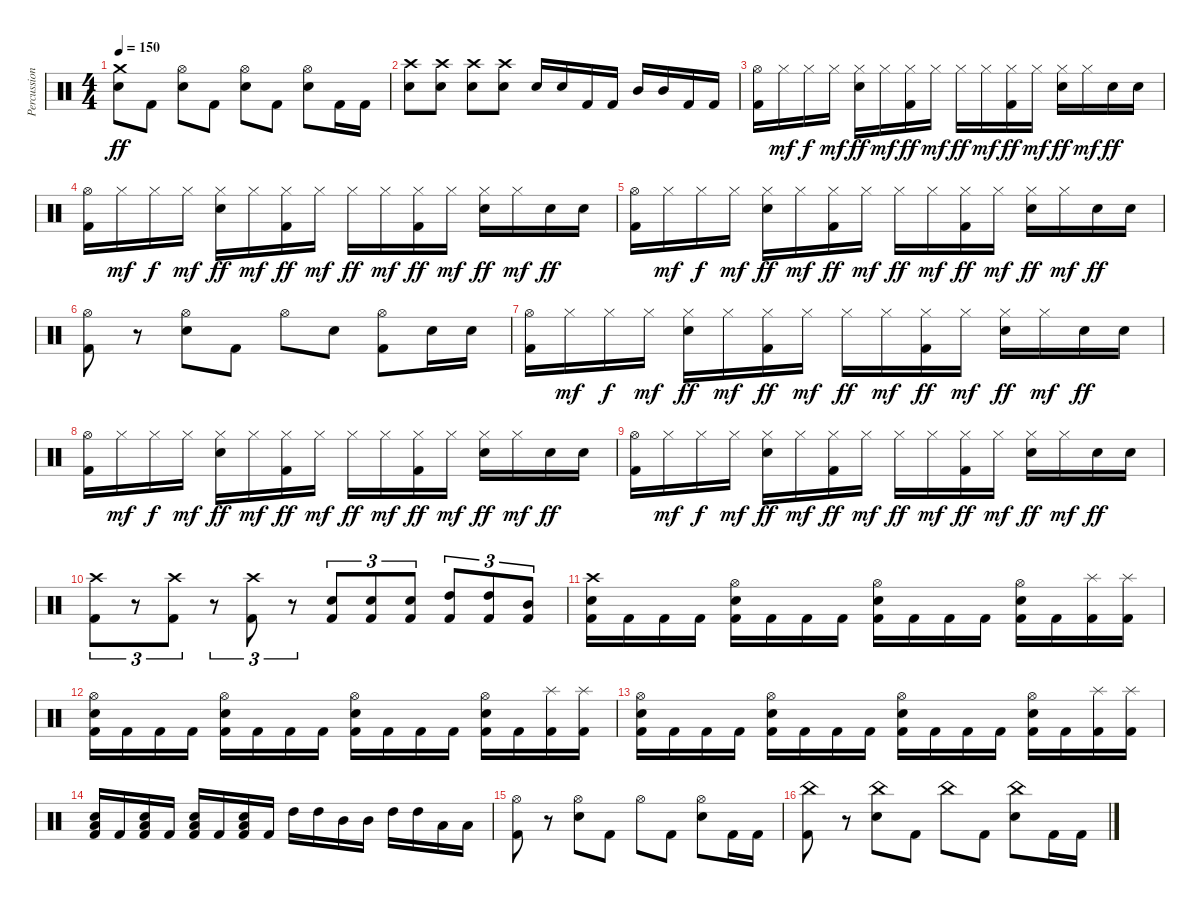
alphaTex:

\track ("Percussion" "Percussion") {instrument percussion}
\staff {score}
\articulation defaults
\ts (4 4)
\tempo 150
\clef neutral
\ks c
("Crash medium (hit)" "Snare (hit) 2").8{dy ff} "Kick (hit) 2".8 ("Hi-Hat (open)" "Snare (hit) 2").8 "Kick (hit) 2".8 ("Hi-Hat (open)" "Snare (hit) 2").8 "Kick (hit) 2".8 ("Hi-Hat (open)" "Snare (hit) 2").8 "Kick (hit) 2".16 "Kick (hit) 2".16 |
("Crash high (hit)" "Snare (hit) 2").8 ("Crash high (hit)" "Snare (hit) 2").8 ("Crash high (hit)" "Snare (hit) 2").8 ("Crash high (hit)" "Snare (hit) 2").8 "Snare (hit) 2".16 "Snare (hit) 2".16 "Kick (hit) 2".16 "Kick (hit) 2".16 "Mid Tom (hit)".16 "Mid Tom (hit)".16 "Kick (hit) 2".16 "Kick (hit) 2".16 |
("Hi-Hat (open)" "Kick (hit) 2").16 "Hi-Hat (closed)".16{dy mf} "Hi-Hat (closed)".16{dy f} "Hi-Hat (closed)".16{dy mf} ("Hi-Hat (closed)" "Snare (hit) 2").16{dy ff} "Hi-Hat (closed)".16{dy mf} ("Hi-Hat (closed)" "Kick (hit) 2").16{dy ff} "Hi-Hat (closed)".16{dy mf} "Hi-Hat (closed)".16{dy ff} "Hi-Hat (closed)".16{dy mf} ("Hi-Hat (closed)" "Kick (hit) 2").16{dy ff} "Hi-Hat (closed)".16{dy mf} ("Hi-Hat (closed)" "Snare (hit) 2").16{dy ff} "Hi-Hat (closed)".16{dy mf} "Snare (hit) 2".16{dy ff} "Snare (hit) 2".16 |
("Hi-Hat (open)" "Kick (hit) 2").16 "Hi-Hat (closed)".16{dy mf} "Hi-Hat (closed)".16{dy f} "Hi-Hat (closed)".16{dy mf} ("Hi-Hat (closed)" "Snare (hit) 2").16{dy ff} "Hi-Hat (closed)".16{dy mf} ("Hi-Hat (closed)" "Kick (hit) 2").16{dy ff} "Hi-Hat (closed)".16{dy mf} "Hi-Hat (closed)".16{dy ff} "Hi-Hat (closed)".16{dy mf} ("Hi-Hat (closed)" "Kick (hit) 2").16{dy ff} "Hi-Hat (closed)".16{dy mf} ("Hi-Hat (closed)" "Snare (hit) 2").16{dy ff} "Hi-Hat (closed)".16{dy mf} "Snare (hit) 2".16{dy ff} "Snare (hit) 2".16 |
("Hi-Hat (open)" "Kick (hit) 2").16 "Hi-Hat (closed)".16{dy mf} "Hi-Hat (closed)".16{dy f} "Hi-Hat (closed)".16{dy mf} ("Hi-Hat (closed)" "Snare (hit) 2").16{dy ff} "Hi-Hat (closed)".16{dy mf} ("Hi-Hat (closed)" "Kick (hit) 2").16{dy ff} "Hi-Hat (closed)".16{dy mf} "Hi-Hat (closed)".16{dy ff} "Hi-Hat (closed)".16{dy mf} ("Hi-Hat (closed)" "Kick (hit) 2").16{dy ff} "Hi-Hat (closed)".16{dy mf} ("Hi-Hat (closed)" "Snare (hit) 2").16{dy ff} "Hi-Hat (closed)".16{dy mf} "Snare (hit) 2".16{dy ff} "Snare (hit) 2".16 |
("Hi-Hat (open)" "Kick (hit) 2").8 r.8 ("Hi-Hat (open)" "Snare (hit) 2").8 "Kick (hit) 2".8 "Hi-Hat (open)".8 "Snare (hit) 2".8 ("Hi-Hat (open)" "Kick (hit) 2").8 "Snare (hit) 2".16 "Snare (hit) 2".16 |
("Hi-Hat (open)" "Kick (hit) 2").16 "Hi-Hat (closed)".16{dy mf} "Hi-Hat (closed)".16{dy f} "Hi-Hat (closed)".16{dy mf} ("Hi-Hat (closed)" "Snare (hit) 2").16{dy ff} "Hi-Hat (closed)".16{dy mf} ("Hi-Hat (closed)" "Kick (hit) 2").16{dy ff} "Hi-Hat (closed)".16{dy mf} "Hi-Hat (closed)".16{dy ff} "Hi-Hat (closed)".16{dy mf} ("Hi-Hat (closed)" "Kick (hit) 2").16{dy ff} "Hi-Hat (closed)".16{dy mf} ("Hi-Hat (closed)" "Snare (hit) 2").16{dy ff} "Hi-Hat (closed)".16{dy mf} "Snare (hit) 2".16{dy ff} "Snare (hit) 2".16 |
("Hi-Hat (open)" "Kick (hit) 2").16 "Hi-Hat (closed)".16{dy mf} "Hi-Hat (closed)".16{dy f} "Hi-Hat (closed)".16{dy mf} ("Hi-Hat (closed)" "Snare (hit) 2").16{dy ff} "Hi-Hat (closed)".16{dy mf} ("Hi-Hat (closed)" "Kick (hit) 2").16{dy ff} "Hi-Hat (closed)".16{dy mf} "Hi-Hat (closed)".16{dy ff} "Hi-Hat (closed)".16{dy mf} ("Hi-Hat (closed)" "Kick (hit) 2").16{dy ff} "Hi-Hat (closed)".16{dy mf} ("Hi-Hat (closed)" "Snare (hit) 2").16{dy ff} "Hi-Hat (closed)".16{dy mf} "Snare (hit) 2".16{dy ff} "Snare (hit) 2".16 |
("Hi-Hat (open)" "Kick (hit) 2").16 "Hi-Hat (closed)".16{dy mf} "Hi-Hat (closed)".16{dy f} "Hi-Hat (closed)".16{dy mf} ("Hi-Hat (closed)" "Snare (hit) 2").16{dy ff} "Hi-Hat (closed)".16{dy mf} ("Hi-Hat (closed)" "Kick (hit) 2").16{dy ff} "Hi-Hat (closed)".16{dy mf} "Hi-Hat (closed)".16{dy ff} "Hi-Hat (closed)".16{dy mf} ("Hi-Hat (closed)" "Kick (hit) 2").16{dy ff} "Hi-Hat (closed)".16{dy mf} ("Hi-Hat (closed)" "Snare (hit) 2").16{dy ff} "Hi-Hat (closed)".16{dy mf} "Snare (hit) 2".16{dy ff} "Snare (hit) 2".16 |
("Crash high (hit)" "Kick (hit) 2").8{tu (3 2)} r.8{tu (3 2)} ("Crash high (hit)" "Kick (hit) 2").8{tu (3 2)} r.8{tu (3 2)} ("Crash high (hit)" "Kick (hit) 2").8{tu (3 2)} r.8{tu (3 2)} ("Snare (hit) 2" "Kick (hit) 2").8{tu (3 2)} ("Snare (hit) 2" "Kick (hit) 2").8{tu (3 2)} ("Snare (hit) 2" "Kick (hit) 2").8{tu (3 2)} ("High Tom (hit)" "Kick (hit) 2").8{tu (3 2)} ("High Tom (hit)" "Kick (hit) 2").8{tu (3 2)} ("Mid Tom (hit)" "Kick (hit) 2").8{tu (3 2)} |
("Crash high (hit)" "Snare (hit) 2" "Kick (hit) 2").16 "Kick (hit) 2".16 "Kick (hit) 2".16 "Kick (hit) 2".16 ("Hi-Hat (open)" "Snare (hit) 2" "Kick (hit) 2").16 "Kick (hit) 2".16 "Kick (hit) 2".16 "Kick (hit) 2".16 ("Hi-Hat (open)" "Snare (hit) 2" "Kick (hit) 2").16 "Kick (hit) 2".16 "Kick (hit) 2".16 "Kick (hit) 2".16 ("Hi-Hat (open)" "Snare (hit) 2" "Kick (hit) 2").16 "Kick (hit) 2".16 ("Splash (hit)" "Kick (hit) 2").16 ("Splash (hit)" "Kick (hit) 2").16 |
("Hi-Hat (open)" "Snare (hit) 2" "Kick (hit) 2").16 "Kick (hit) 2".16 "Kick (hit) 2".16 "Kick (hit) 2".16 ("Hi-Hat (open)" "Snare (hit) 2" "Kick (hit) 2").16 "Kick (hit) 2".16 "Kick (hit) 2".16 "Kick (hit) 2".16 ("Hi-Hat (open)" "Snare (hit) 2" "Kick (hit) 2").16 "Kick (hit) 2".16 "Kick (hit) 2".16 "Kick (hit) 2".16 ("Hi-Hat (open)" "Snare (hit) 2" "Kick (hit) 2").16 "Kick (hit) 2".16 ("Splash (hit)" "Kick (hit) 2").16 ("Splash (hit)" "Kick (hit) 2").16 |
("Hi-Hat (open)" "Snare (hit) 2" "Kick (hit) 2").16 "Kick (hit) 2".16 "Kick (hit) 2".16 "Kick (hit) 2".16 ("Hi-Hat (open)" "Snare (hit) 2" "Kick (hit) 2").16 "Kick (hit) 2".16 "Kick (hit) 2".16 "Kick (hit) 2".16 ("Hi-Hat (open)" "Snare (hit) 2" "Kick (hit) 2").16 "Kick (hit) 2".16 "Kick (hit) 2".16 "Kick (hit) 2".16 ("Hi-Hat (open)" "Snare (hit) 2" "Kick (hit) 2").16 "Kick (hit) 2".16 ("Splash (hit)" "Kick (hit) 2").16 ("Splash (hit)" "Kick (hit) 2").16 |
("Low Tom (hit)" "Snare (hit) 2" "Kick (hit) 2").16 "Kick (hit) 2".16 ("Low Tom (hit)" "Snare (hit) 2" "Kick (hit) 2").16 "Kick (hit) 2".16 ("Low Tom (hit)" "Snare (hit) 2" "Kick (hit) 2").16 "Kick (hit) 2".16 ("Low Tom (hit)" "Snare (hit) 2" "Kick (hit) 2").16 "Kick (hit) 2".16 "High Tom (hit)".16 "High Tom (hit)".16 "Mid Tom (hit)".16 "Mid Tom (hit)".16 "High Tom (hit)".16 "High Tom (hit)".16 "Low Tom (hit)".16 "Low Tom (hit)".16 |
("Hi-Hat (open)" "Kick (hit) 2").8 r.8 ("Hi-Hat (open)" "Snare (hit) 2").8 "Kick (hit) 2".8 "Hi-Hat (open)".8 "Kick (hit) 2".8 ("Hi-Hat (open)" "Snare (hit) 2").8 "Kick (hit) 2".16 "Kick (hit) 2".16 |
("China (hit)" "Kick (hit) 2").8 r.8 ("China (hit)" "Snare (hit) 2").8 "Kick (hit) 2".8 "China (hit)".8 "Kick (hit) 2".8 ("China (hit)" "Snare (hit) 2").8 "Kick (hit) 2".16 "Kick (hit) 2".16
